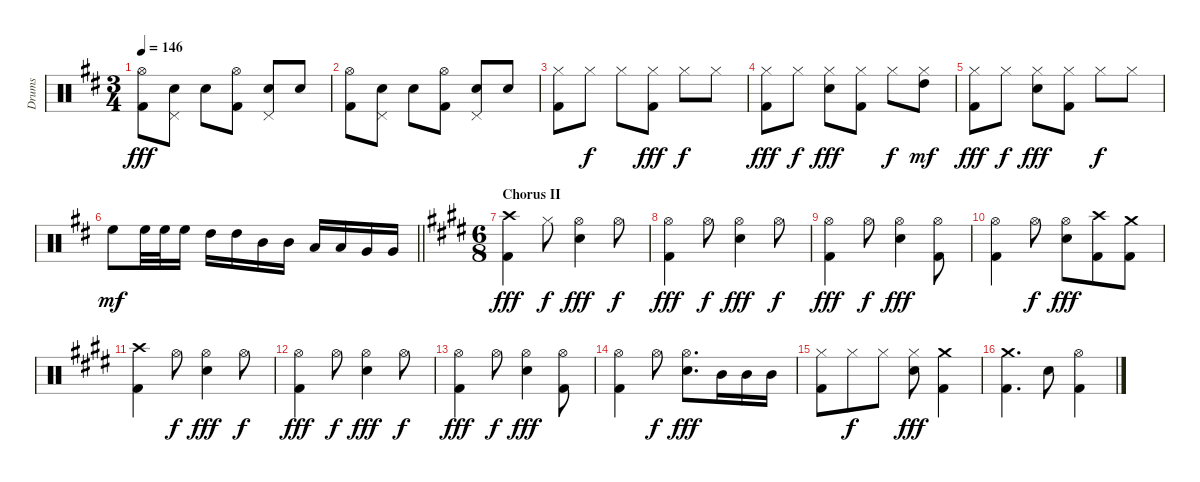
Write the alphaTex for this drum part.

\track ("Drums" "Drums") {instrument percussion}
\staff {score}
\articulation defaults
\ts (3 4)
\tempo 146
\clef neutral
\ks d
("Hi-Hat (open)" "Kick (hit) 2").8{dy fff} ("Pedal Hi-Hat (hit)" "Snare (hit) 2").8 "Snare (hit) 2".8 ("Hi-Hat (open)" "Kick (hit) 2").8 ("Pedal Hi-Hat (hit)" "Snare (hit) 2").8 "Snare (hit) 2".8 |
("Hi-Hat (open)" "Kick (hit) 2").8 ("Pedal Hi-Hat (hit)" "Snare (hit) 2").8 "Snare (hit) 2".8 ("Hi-Hat (open)" "Kick (hit) 2").8 ("Pedal Hi-Hat (hit)" "Snare (hit) 2").8 "Snare (hit) 2".8 |
("Hi-Hat (closed)" "Kick (hit) 2").8 "Hi-Hat (closed)".8{dy f} "Hi-Hat (closed)".8 ("Hi-Hat (closed)" "Kick (hit) 2").8{dy fff} "Hi-Hat (closed)".8{dy f} "Hi-Hat (closed)".8 |
("Hi-Hat (closed)" "Kick (hit) 2").8{dy fff} "Hi-Hat (closed)".8{dy f} ("Hi-Hat (closed)" "Snare (hit) 2").8{dy fff} ("Hi-Hat (closed)" "Kick (hit) 2").8 "Hi-Hat (closed)".8{dy f} ("Hi-Hat (closed)" "High Tom (hit)").8{dy mf} |
("Hi-Hat (closed)" "Kick (hit) 2").8{dy fff} "Hi-Hat (closed)".8{dy f} ("Hi-Hat (closed)" "Snare (hit) 2").8{dy fff} ("Hi-Hat (closed)" "Kick (hit) 2").8 "Hi-Hat (closed)".8{dy f} "Hi-Hat (closed)".8 |
\barLineRight lightlight "High Floor Tom (hit)".8{dy mf} "High Floor Tom (hit)".32 "High Floor Tom (hit)".32 "High Floor Tom (hit)".16 "High Tom (hit)".16 "High Tom (hit)".16 "Mid Tom (hit)".16 "Mid Tom (hit)".16 "Low Tom (hit)".16 "Low Tom (hit)".16 "Very Low Tom (hit)".16 "Very Low Tom (hit)".16
|
\ts (6 8)
\section ("" "Chorus II")
\ks e
("Crash high (hit)" "Kick (hit) 2").4{dy fff} "Hi-Hat (closed)".8{dy f} ("Hi-Hat (open)" "Snare (hit) 2").4{dy fff} "Hi-Hat (open)".8{dy f} |
("Hi-Hat (open)" "Kick (hit) 2").4{dy fff} "Hi-Hat (open)".8{dy f} ("Hi-Hat (open)" "Snare (hit) 2").4{dy fff} "Hi-Hat (open)".8{dy f} |
("Hi-Hat (open)" "Kick (hit) 2").4{dy fff} "Hi-Hat (open)".8{dy f} ("Hi-Hat (open)" "Snare (hit) 2").4{dy fff} ("Hi-Hat (open)" "Kick (hit) 2").8 |
("Hi-Hat (open)" "Kick (hit) 2").4 "Hi-Hat (open)".8{dy f} ("Hi-Hat (open)" "Snare (hit) 2").8{dy fff} ("Crash high (hit)" "Kick (hit) 2").8 ("Crash medium (hit)" "Kick (hit) 2").8 |
("Crash high (hit)" "Kick (hit) 2").4 "Hi-Hat (open)".8{dy f} ("Hi-Hat (open)" "Snare (hit) 2").4{dy fff} "Hi-Hat (open)".8{dy f} |
("Hi-Hat (open)" "Kick (hit) 2").4{dy fff} "Hi-Hat (open)".8{dy f} ("Hi-Hat (open)" "Snare (hit) 2").4{dy fff} "Hi-Hat (open)".8{dy f} |
("Hi-Hat (open)" "Kick (hit) 2").4{dy fff} "Hi-Hat (open)".8{dy f} ("Hi-Hat (open)" "Snare (hit) 2").4{dy fff} ("Hi-Hat (open)" "Kick (hit) 2").8 |
("Hi-Hat (open)" "Kick (hit) 2").4 "Hi-Hat (open)".8{dy f} ("Hi-Hat (open)" "Snare (hit) 2").8{d dy fff} "Mid Tom (hit)".16 "Mid Tom (hit)".16 "Mid Tom (hit)".16 |
("Hi-Hat (closed)" "Kick (hit) 2").8 "Hi-Hat (closed)".8{dy f} "Hi-Hat (closed)".8 ("Hi-Hat (closed)" "Snare (hit) 2").8{dy fff} ("Crash medium (hit)" "Kick (hit) 2").4 |
("Crash medium (hit)" "Kick (hit) 2").4{d} "Snare (hit) 2".8 ("Hi-Hat (open)" "Kick (hit) 2").4
